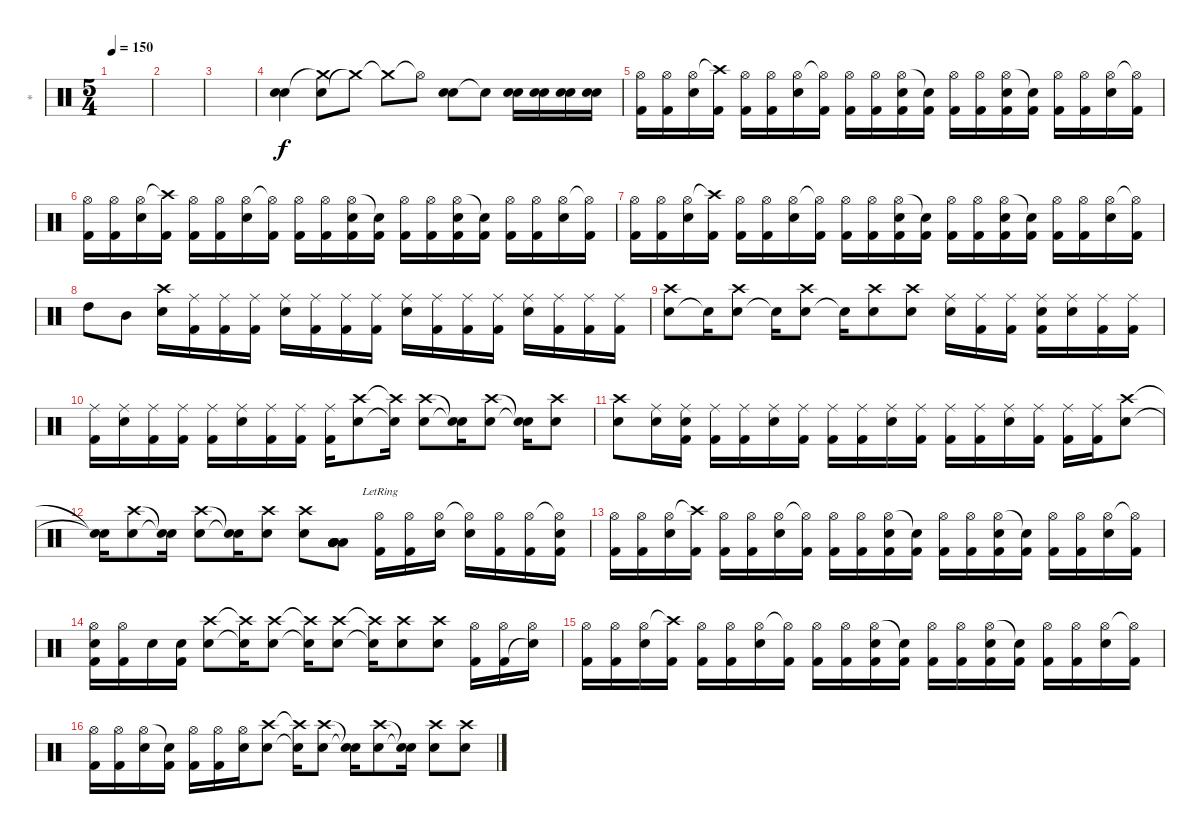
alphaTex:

\track ("*" "*") {instrument percussion}
\staff {score}
\articulation defaults
\ts (5 4)
\tempo 150
\clef neutral
\ks c
|
|
|
("Electric Snare (hit)" "Snare (hit)").4 ("Electric Snare (hit)" "Crash medium (hit)"{t}).8 "Crash medium (hit)"{t}.8 "Crash medium (hit)"{t}.8 "Hi-Hat (open)"{t}.8 ("Electric Snare (hit)" "Electric Snare (hit)").8 "Snare (hit)"{t}.8 ("Electric Snare (hit)" "Electric Snare (hit)").16 ("Electric Snare (hit)" "Electric Snare (hit)").16 ("Electric Snare (hit)" "Electric Snare (hit)").16 ("Electric Snare (hit)" "Electric Snare (hit)").16 |
("Hi-Hat (open)" "Kick (hit) 2").16 ("Hi-Hat (open)" "Kick (hit) 2").16 ("Hi-Hat (open)" "Electric Snare (hit)").16 ("Crash high (hit)"{t} "Kick (hit) 2").16 ("Hi-Hat (open)" "Kick (hit) 2").16 ("Hi-Hat (open)" "Kick (hit) 2").16 ("Hi-Hat (open)" "Electric Snare (hit)").16 ("Hi-Hat (open)"{t} "Kick (hit) 2").16 ("Hi-Hat (open)" "Kick (hit) 2").16 ("Hi-Hat (open)" "Kick (hit) 2").16 ("Hi-Hat (open)" "Electric Snare (hit)" "Kick (hit) 2"{x}).16 ("Snare (hit)"{t} "Kick (hit) 2").16 ("Hi-Hat (open)" "Kick (hit) 2").16 ("Hi-Hat (open)" "Kick (hit) 2").16 ("Hi-Hat (open)" "Electric Snare (hit)" "Kick (hit) 2"{x}).16 ("Snare (hit)"{t} "Kick (hit) 2").16 ("Hi-Hat (open)" "Kick (hit) 2").16 ("Hi-Hat (open)" "Kick (hit) 2").16 ("Hi-Hat (open)" "Electric Snare (hit)").16 ("Hi-Hat (open)"{t} "Kick (hit) 2").16 |
("Hi-Hat (open)" "Kick (hit) 2").16 ("Hi-Hat (open)" "Kick (hit) 2").16 ("Hi-Hat (open)" "Electric Snare (hit)").16 ("Crash high (hit)"{t} "Kick (hit) 2").16 ("Hi-Hat (open)" "Kick (hit) 2").16 ("Hi-Hat (open)" "Kick (hit) 2").16 ("Hi-Hat (open)" "Electric Snare (hit)").16 ("Hi-Hat (open)"{t} "Kick (hit) 2").16 ("Hi-Hat (open)" "Kick (hit) 2").16 ("Hi-Hat (open)" "Kick (hit) 2").16 ("Hi-Hat (open)" "Electric Snare (hit)" "Kick (hit) 2"{x}).16 ("Snare (hit)"{t} "Kick (hit) 2").16 ("Hi-Hat (open)" "Kick (hit) 2").16 ("Hi-Hat (open)" "Kick (hit) 2").16 ("Hi-Hat (open)" "Electric Snare (hit)" "Kick (hit) 2"{x}).16 ("Snare (hit)"{t} "Kick (hit) 2").16 ("Hi-Hat (open)" "Kick (hit) 2").16 ("Hi-Hat (open)" "Kick (hit) 2").16 ("Hi-Hat (open)" "Electric Snare (hit)").16 ("Hi-Hat (open)"{t} "Kick (hit) 2").16 |
("Hi-Hat (open)" "Kick (hit) 2").16 ("Hi-Hat (open)" "Kick (hit) 2").16 ("Hi-Hat (open)" "Electric Snare (hit)").16 ("Crash high (hit)"{t} "Kick (hit) 2").16 ("Hi-Hat (open)" "Kick (hit) 2").16 ("Hi-Hat (open)" "Kick (hit) 2").16 ("Hi-Hat (open)" "Electric Snare (hit)").16 ("Hi-Hat (open)"{t} "Kick (hit) 2").16 ("Hi-Hat (open)" "Kick (hit) 2").16 ("Hi-Hat (open)" "Kick (hit) 2").16 ("Hi-Hat (open)" "Electric Snare (hit)" "Kick (hit) 2"{x}).16 ("Snare (hit)"{t} "Kick (hit) 2").16 ("Hi-Hat (open)" "Kick (hit) 2").16 ("Hi-Hat (open)" "Kick (hit) 2").16 ("Hi-Hat (open)" "Electric Snare (hit)" "Kick (hit) 2"{x}).16 ("Snare (hit)"{t} "Kick (hit) 2").16 ("Hi-Hat (open)" "Kick (hit) 2").16 ("Hi-Hat (open)" "Kick (hit) 2").16 ("Hi-Hat (open)" "Electric Snare (hit)").16 ("Hi-Hat (open)"{t} "Kick (hit) 2").16 |
"High Tom (hit)".8 "Mid Tom (hit)".8 ("Crash high (hit)" "Electric Snare (hit)").16 ("Ride (middle)" "Kick (hit) 2").16 ("Ride (middle)" "Kick (hit) 2").16 ("Ride (middle)" "Kick (hit) 2").16 ("Ride (middle)" "Electric Snare (hit)").16 ("Ride (middle)" "Kick (hit) 2").16 ("Ride (middle)" "Kick (hit) 2").16 ("Ride (middle)" "Kick (hit) 2").16 ("Ride (middle)" "Electric Snare (hit)").16 ("Ride (middle)" "Kick (hit) 2").16 ("Ride (middle)" "Kick (hit) 2").16 ("Ride (middle)" "Kick (hit) 2").16 ("Ride (middle)" "Electric Snare (hit)").16 ("Ride (middle)" "Kick (hit) 2").16 ("Ride (middle)" "Kick (hit) 2").16 ("Ride (middle)" "Kick (hit) 2").16 |
("Electric Snare (hit)" "Crash high (hit)").8 "Snare (hit)"{t}.16 ("Electric Snare (hit)" "Crash high (hit)").8 "Snare (hit)"{t}.16 ("Electric Snare (hit)" "Crash high (hit)").8 "Snare (hit)"{t}.16 ("Electric Snare (hit)" "Crash high (hit)").8 ("Electric Snare (hit)" "Crash high (hit)").8 ("Ride (middle)" "Electric Snare (hit)").16 ("Ride (middle)" "Kick (hit) 2").16 ("Ride (middle)" "Kick (hit) 2").16 ("Ride (middle)" "Electric Snare (hit)"{x} "Kick (hit) 2").16 ("Ride (middle)" "Electric Snare (hit)").16 ("Ride (middle)" "Kick (hit) 2").16 ("Ride (middle)" "Kick (hit) 2").16 |
("Ride (middle)" "Kick (hit) 2").16 ("Ride (middle)" "Electric Snare (hit)").16 ("Ride (middle)" "Kick (hit) 2").16 ("Ride (middle)" "Kick (hit) 2").16 ("Ride (middle)" "Kick (hit) 2").16 ("Ride (middle)" "Electric Snare (hit)").16 ("Ride (middle)" "Kick (hit) 2").16 ("Ride (middle)" "Kick (hit) 2").16 ("Ride (middle)" "Kick (hit) 2").16 ("Crash high (hit)" "Electric Snare (hit)").8 ("Crash high (hit)"{t} "Electric Snare (hit)"{t}).16 ("Crash high (hit)" "Electric Snare (hit)").8 ("Snare (hit)"{t} "Snare (hit)"{t}).16 ("Crash high (hit)" "Electric Snare (hit)").8 ("Snare (hit)"{t} "Snare (hit)"{t}).16 ("Crash high (hit)" "Electric Snare (hit)").8 |
("Crash high (hit)" "Electric Snare (hit)").8 ("Ride (middle)" "Electric Snare (hit)").16 ("Snare (hit)" "Ride (middle)" "Kick (hit) 2").16 ("Ride (middle)" "Kick (hit) 2").16 ("Ride (middle)" "Kick (hit) 2").16 ("Ride (middle)" "Electric Snare (hit)").16 ("Ride (middle)" "Kick (hit) 2").16 ("Ride (middle)" "Kick (hit) 2").16 ("Ride (middle)" "Kick (hit) 2").16 ("Ride (middle)" "Electric Snare (hit)").16 ("Ride (middle)" "Kick (hit) 2").16 ("Ride (middle)" "Kick (hit) 2").16 ("Ride (middle)" "Kick (hit) 2").16 ("Ride (middle)" "Electric Snare (hit)").16 ("Ride (middle)" "Kick (hit) 2").16 ("Ride (middle)" "Kick (hit) 2").16 ("Ride (middle)" "Kick (hit) 2").16 ("Crash high (hit)" "Electric Snare (hit)").8 |
("Snare (hit)"{t} "Snare (hit)"{t}).16 ("Crash high (hit)" "Electric Snare (hit)").8 ("Snare (hit)"{t} "Snare (hit)"{t}).16 ("Crash high (hit)" "Electric Snare (hit)").8 ("Snare (hit)"{t} "Snare (hit)"{t}).16 ("Crash high (hit)" "Electric Snare (hit)").8 ("Crash high (hit)" "Electric Snare (hit)").8 ("Low Tom (hit)" "Low Tom (hit)" "Low Tom (hit)" "Low Tom (hit)" "Low Tom (hit)" "Low Tom (hit)").8 ("Hi-Hat (open)"{lr} "Kick (hit) 2").16 ("Hi-Hat (open)" "Kick (hit) 2").16 ("Hi-Hat (open)" "Electric Snare (hit)").16 ("Hi-Hat (open)"{t} "Electric Snare (hit)"{x}).16 ("Hi-Hat (open)" "Kick (hit) 2").16 ("Hi-Hat (open)" "Kick (hit) 2").16 ("Hi-Hat (open)"{t} "Electric Snare (hit)" "Kick (hit) 2").16 |
("Hi-Hat (open)" "Kick (hit) 2").16 ("Hi-Hat (open)" "Kick (hit) 2").16 ("Hi-Hat (open)" "Electric Snare (hit)").16 ("Crash high (hit)"{t} "Kick (hit) 2").16 ("Hi-Hat (open)" "Kick (hit) 2").16 ("Hi-Hat (open)" "Kick (hit) 2").16 ("Hi-Hat (open)" "Electric Snare (hit)").16 ("Hi-Hat (open)"{t} "Kick (hit) 2").16 ("Hi-Hat (open)" "Kick (hit) 2").16 ("Hi-Hat (open)" "Kick (hit) 2").16 ("Hi-Hat (open)" "Electric Snare (hit)" "Kick (hit) 2"{x}).16 ("Snare (hit)"{t} "Kick (hit) 2").16 ("Hi-Hat (open)" "Kick (hit) 2").16 ("Hi-Hat (open)" "Kick (hit) 2").16 ("Hi-Hat (open)" "Electric Snare (hit)" "Kick (hit) 2"{x}).16 ("Snare (hit)"{t} "Kick (hit) 2").16 ("Hi-Hat (open)" "Kick (hit) 2").16 ("Hi-Hat (open)" "Kick (hit) 2").16 ("Hi-Hat (open)" "Electric Snare (hit)").16 ("Hi-Hat (open)"{t} "Kick (hit) 2").16 |
("Hi-Hat (open)" "Electric Snare (hit)" "Kick (hit) 2").16 ("Hi-Hat (open)" "Kick (hit) 2").16 "Electric Snare (hit)".16 ("Electric Snare (hit)" "Kick (hit) 2").16 ("Crash high (hit)" "Electric Snare (hit)").8 ("Crash high (hit)"{t} "Electric Snare (hit)"{t}).16 ("Crash high (hit)" "Electric Snare (hit)").8 ("Crash high (hit)"{t} "Electric Snare (hit)"{t}).16 ("Crash high (hit)" "Electric Snare (hit)").8 ("Crash high (hit)"{t} "Electric Snare (hit)"{t}).16 ("Crash high (hit)" "Electric Snare (hit)").8 ("Crash high (hit)" "Electric Snare (hit)").8 ("Hi-Hat (open)" "Kick (hit) 2").16 ("Hi-Hat (open)" "Kick (hit) 2").16 ("Hi-Hat (open)" "Electric Snare (hit)"{t}).16 |
("Hi-Hat (open)" "Kick (hit) 2").16 ("Hi-Hat (open)" "Kick (hit) 2").16 ("Hi-Hat (open)" "Electric Snare (hit)").16 ("Crash high (hit)"{t} "Kick (hit) 2").16 ("Hi-Hat (open)" "Kick (hit) 2").16 ("Hi-Hat (open)" "Kick (hit) 2").16 ("Hi-Hat (open)" "Electric Snare (hit)").16 ("Hi-Hat (open)"{t} "Kick (hit) 2").16 ("Hi-Hat (open)" "Kick (hit) 2").16 ("Hi-Hat (open)" "Kick (hit) 2").16 ("Hi-Hat (open)" "Electric Snare (hit)" "Kick (hit) 2"{x}).16 ("Snare (hit)"{t} "Kick (hit) 2").16 ("Hi-Hat (open)" "Kick (hit) 2").16 ("Hi-Hat (open)" "Kick (hit) 2").16 ("Hi-Hat (open)" "Electric Snare (hit)" "Kick (hit) 2"{x}).16 ("Snare (hit)"{t} "Kick (hit) 2").16 ("Hi-Hat (open)" "Kick (hit) 2").16 ("Hi-Hat (open)" "Kick (hit) 2").16 ("Hi-Hat (open)" "Electric Snare (hit)").16 ("Hi-Hat (open)"{t} "Kick (hit) 2").16 |
("Hi-Hat (open)" "Kick (hit) 2").16 ("Hi-Hat (open)" "Kick (hit) 2").16 ("Hi-Hat (open)" "Electric Snare (hit)").16 ("Snare (hit)"{t} "Kick (hit) 2").16 ("Hi-Hat (open)" "Kick (hit) 2").16 ("Hi-Hat (open)" "Kick (hit) 2").16 ("Hi-Hat (open)" "Electric Snare (hit)").16 ("Crash high (hit)" "Electric Snare (hit)").8 ("Crash high (hit)"{t} "Snare (hit)"{t}).16 ("Crash high (hit)" "Electric Snare (hit)").8 ("Snare (hit)"{t} "Snare (hit)"{t}).16 ("Crash high (hit)" "Electric Snare (hit)").8 ("Snare (hit)"{t} "Snare (hit)"{t}).16 ("Crash high (hit)" "Electric Snare (hit)").8 ("Crash high (hit)" "Electric Snare (hit)").8
